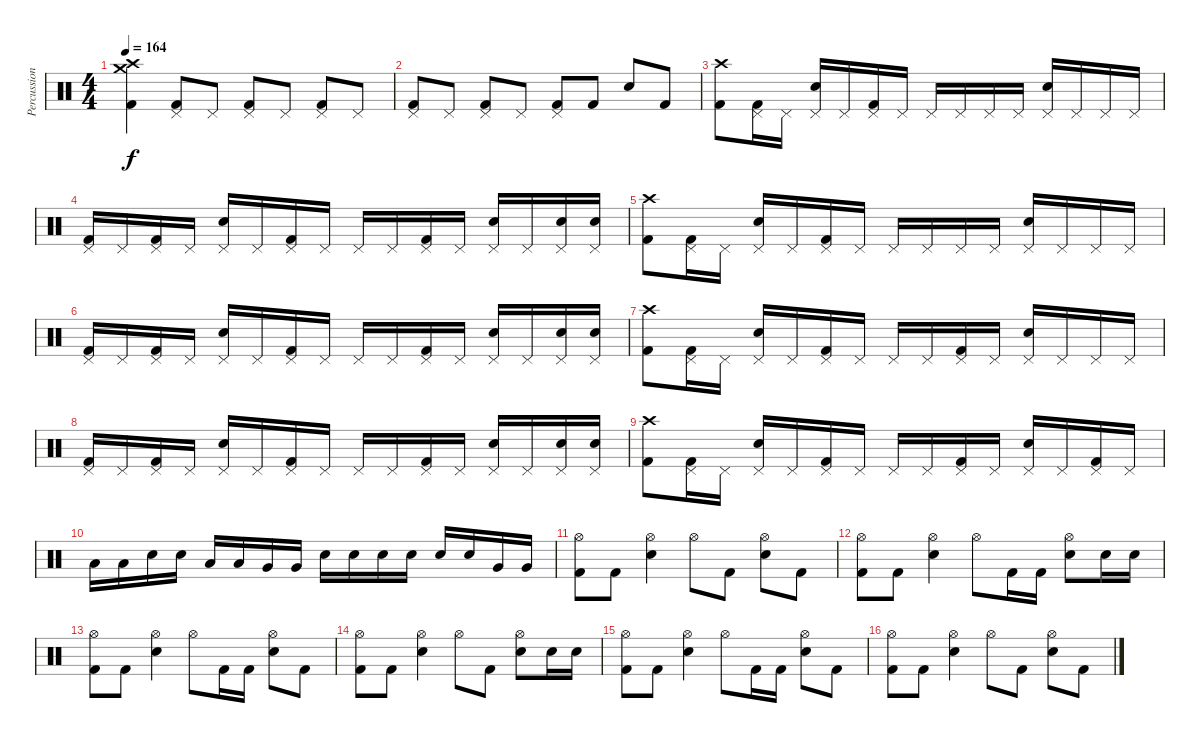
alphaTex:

\track ("Percussion" "Percussion") {instrument percussion}
\staff {score}
\articulation defaults
\ts (4 4)
\tempo 164
\clef neutral
\ks c
("Crash high (hit)" "Crash medium (hit)" "Kick (hit) 2").4{dy f} ("Pedal Hi-Hat (hit)" "Kick (hit) 2").8 "Pedal Hi-Hat (hit)".8 ("Pedal Hi-Hat (hit)" "Kick (hit) 2").8 "Pedal Hi-Hat (hit)".8 ("Pedal Hi-Hat (hit)" "Kick (hit) 2").8 "Pedal Hi-Hat (hit)".8 |
("Pedal Hi-Hat (hit)" "Kick (hit) 2").8 "Pedal Hi-Hat (hit)".8 ("Pedal Hi-Hat (hit)" "Kick (hit) 2").8 "Pedal Hi-Hat (hit)".8 ("Pedal Hi-Hat (hit)" "Kick (hit) 2").8 "Kick (hit) 2".8 "Electric Snare (hit)".8 "Kick (hit) 2".8 |
("Crash high (hit)" "Kick (hit) 2").8 ("Pedal Hi-Hat (hit)" "Kick (hit) 2").16 "Pedal Hi-Hat (hit)".16 ("Pedal Hi-Hat (hit)" "Electric Snare (hit)").16 "Pedal Hi-Hat (hit)".16 ("Pedal Hi-Hat (hit)" "Kick (hit) 2").16 "Pedal Hi-Hat (hit)".16 "Pedal Hi-Hat (hit)".16 "Pedal Hi-Hat (hit)".16 "Pedal Hi-Hat (hit)".16 "Pedal Hi-Hat (hit)".16 ("Pedal Hi-Hat (hit)" "Electric Snare (hit)").16 "Pedal Hi-Hat (hit)".16 "Pedal Hi-Hat (hit)".16 "Pedal Hi-Hat (hit)".16 |
("Pedal Hi-Hat (hit)" "Kick (hit) 2").16 "Pedal Hi-Hat (hit)".16 ("Pedal Hi-Hat (hit)" "Kick (hit) 2").16 "Pedal Hi-Hat (hit)".16 ("Pedal Hi-Hat (hit)" "Electric Snare (hit)").16 "Pedal Hi-Hat (hit)".16 ("Pedal Hi-Hat (hit)" "Kick (hit) 2").16 "Pedal Hi-Hat (hit)".16 "Pedal Hi-Hat (hit)".16 "Pedal Hi-Hat (hit)".16 ("Pedal Hi-Hat (hit)" "Kick (hit) 2").16 "Pedal Hi-Hat (hit)".16 ("Pedal Hi-Hat (hit)" "Electric Snare (hit)").16 "Pedal Hi-Hat (hit)".16 ("Pedal Hi-Hat (hit)" "Electric Snare (hit)").16 ("Pedal Hi-Hat (hit)" "Electric Snare (hit)").16 |
("Crash high (hit)" "Kick (hit) 2").8 ("Pedal Hi-Hat (hit)" "Kick (hit) 2").16 "Pedal Hi-Hat (hit)".16 ("Pedal Hi-Hat (hit)" "Electric Snare (hit)").16 "Pedal Hi-Hat (hit)".16 ("Pedal Hi-Hat (hit)" "Kick (hit) 2").16 "Pedal Hi-Hat (hit)".16 "Pedal Hi-Hat (hit)".16 "Pedal Hi-Hat (hit)".16 "Pedal Hi-Hat (hit)".16 "Pedal Hi-Hat (hit)".16 ("Pedal Hi-Hat (hit)" "Electric Snare (hit)").16 "Pedal Hi-Hat (hit)".16 "Pedal Hi-Hat (hit)".16 "Pedal Hi-Hat (hit)".16 |
("Pedal Hi-Hat (hit)" "Kick (hit) 2").16 "Pedal Hi-Hat (hit)".16 ("Pedal Hi-Hat (hit)" "Kick (hit) 2").16 "Pedal Hi-Hat (hit)".16 ("Pedal Hi-Hat (hit)" "Electric Snare (hit)").16 "Pedal Hi-Hat (hit)".16 ("Pedal Hi-Hat (hit)" "Kick (hit) 2").16 "Pedal Hi-Hat (hit)".16 "Pedal Hi-Hat (hit)".16 "Pedal Hi-Hat (hit)".16 ("Pedal Hi-Hat (hit)" "Kick (hit) 2").16 "Pedal Hi-Hat (hit)".16 ("Pedal Hi-Hat (hit)" "Electric Snare (hit)").16 "Pedal Hi-Hat (hit)".16 ("Pedal Hi-Hat (hit)" "Electric Snare (hit)").16 ("Pedal Hi-Hat (hit)" "Electric Snare (hit)").16 |
("Crash high (hit)" "Kick (hit) 2").8 ("Pedal Hi-Hat (hit)" "Kick (hit) 2").16 "Pedal Hi-Hat (hit)".16 ("Pedal Hi-Hat (hit)" "Electric Snare (hit)").16 "Pedal Hi-Hat (hit)".16 ("Pedal Hi-Hat (hit)" "Kick (hit) 2").16 "Pedal Hi-Hat (hit)".16 "Pedal Hi-Hat (hit)".16 "Pedal Hi-Hat (hit)".16 ("Pedal Hi-Hat (hit)" "Kick (hit) 2").16 "Pedal Hi-Hat (hit)".16 ("Pedal Hi-Hat (hit)" "Electric Snare (hit)").16 "Pedal Hi-Hat (hit)".16 "Pedal Hi-Hat (hit)".16 "Pedal Hi-Hat (hit)".16 |
("Pedal Hi-Hat (hit)" "Kick (hit) 2").16 "Pedal Hi-Hat (hit)".16 ("Pedal Hi-Hat (hit)" "Kick (hit) 2").16 "Pedal Hi-Hat (hit)".16 ("Pedal Hi-Hat (hit)" "Electric Snare (hit)").16 "Pedal Hi-Hat (hit)".16 ("Pedal Hi-Hat (hit)" "Kick (hit) 2").16 "Pedal Hi-Hat (hit)".16 "Pedal Hi-Hat (hit)".16 "Pedal Hi-Hat (hit)".16 ("Pedal Hi-Hat (hit)" "Kick (hit) 2").16 "Pedal Hi-Hat (hit)".16 ("Pedal Hi-Hat (hit)" "Electric Snare (hit)").16 "Pedal Hi-Hat (hit)".16 ("Pedal Hi-Hat (hit)" "Electric Snare (hit)").16 ("Pedal Hi-Hat (hit)" "Electric Snare (hit)").16 |
("Crash high (hit)" "Kick (hit) 2").8 ("Pedal Hi-Hat (hit)" "Kick (hit) 2").16 "Pedal Hi-Hat (hit)".16 ("Pedal Hi-Hat (hit)" "Electric Snare (hit)").16 "Pedal Hi-Hat (hit)".16 ("Pedal Hi-Hat (hit)" "Kick (hit) 2").16 "Pedal Hi-Hat (hit)".16 "Pedal Hi-Hat (hit)".16 "Pedal Hi-Hat (hit)".16 ("Pedal Hi-Hat (hit)" "Kick (hit) 2").16 "Pedal Hi-Hat (hit)".16 ("Pedal Hi-Hat (hit)" "Electric Snare (hit)").16 "Pedal Hi-Hat (hit)".16 ("Pedal Hi-Hat (hit)" "Kick (hit) 2").16 "Pedal Hi-Hat (hit)".16 |
"Low Tom (hit)".16 "Low Tom (hit)".16 "Electric Snare (hit)".16 "Electric Snare (hit)".16 "Low Tom (hit)".16 "Low Tom (hit)".16 "Very Low Tom (hit)".16 "Very Low Tom (hit)".16 "Electric Snare (hit)".16 "Electric Snare (hit)".16 "Electric Snare (hit)".16 "Electric Snare (hit)".16 "Electric Snare (hit)".16 "Electric Snare (hit)".16 "Very Low Tom (hit)".16 "Very Low Tom (hit)".16 |
("Hi-Hat (open)" "Kick (hit) 2").8 "Kick (hit) 2".8 ("Hi-Hat (open)" "Electric Snare (hit)").4 "Hi-Hat (open)".8 "Kick (hit) 2".8 ("Hi-Hat (open)" "Electric Snare (hit)").8 "Kick (hit) 2".8 |
("Hi-Hat (open)" "Kick (hit) 2").8 "Kick (hit) 2".8 ("Hi-Hat (open)" "Electric Snare (hit)").4 "Hi-Hat (open)".8 "Kick (hit) 2".16 "Kick (hit) 2".16 ("Hi-Hat (open)" "Electric Snare (hit)").8 "Electric Snare (hit)".16 "Electric Snare (hit)".16 |
("Hi-Hat (open)" "Kick (hit) 2").8 "Kick (hit) 2".8 ("Hi-Hat (open)" "Electric Snare (hit)").4 "Hi-Hat (open)".8 "Kick (hit) 2".16 "Kick (hit) 2".16 ("Hi-Hat (open)" "Electric Snare (hit)").8 "Kick (hit) 2".8 |
("Hi-Hat (open)" "Kick (hit) 2").8 "Kick (hit) 2".8 ("Hi-Hat (open)" "Electric Snare (hit)").4 "Hi-Hat (open)".8 "Kick (hit) 2".8 ("Hi-Hat (open)" "Electric Snare (hit)").8 "Electric Snare (hit)".16 "Electric Snare (hit)".16 |
("Hi-Hat (open)" "Kick (hit) 2").8 "Kick (hit) 2".8 ("Hi-Hat (open)" "Electric Snare (hit)").4 "Hi-Hat (open)".8 "Kick (hit) 2".16 "Kick (hit) 2".16 ("Hi-Hat (open)" "Electric Snare (hit)").8 "Kick (hit) 2".8 |
("Hi-Hat (open)" "Kick (hit) 2").8 "Kick (hit) 2".8 ("Hi-Hat (open)" "Electric Snare (hit)").4 "Hi-Hat (open)".8 "Kick (hit) 2".8 ("Hi-Hat (open)" "Electric Snare (hit)").8 "Kick (hit) 2".8
